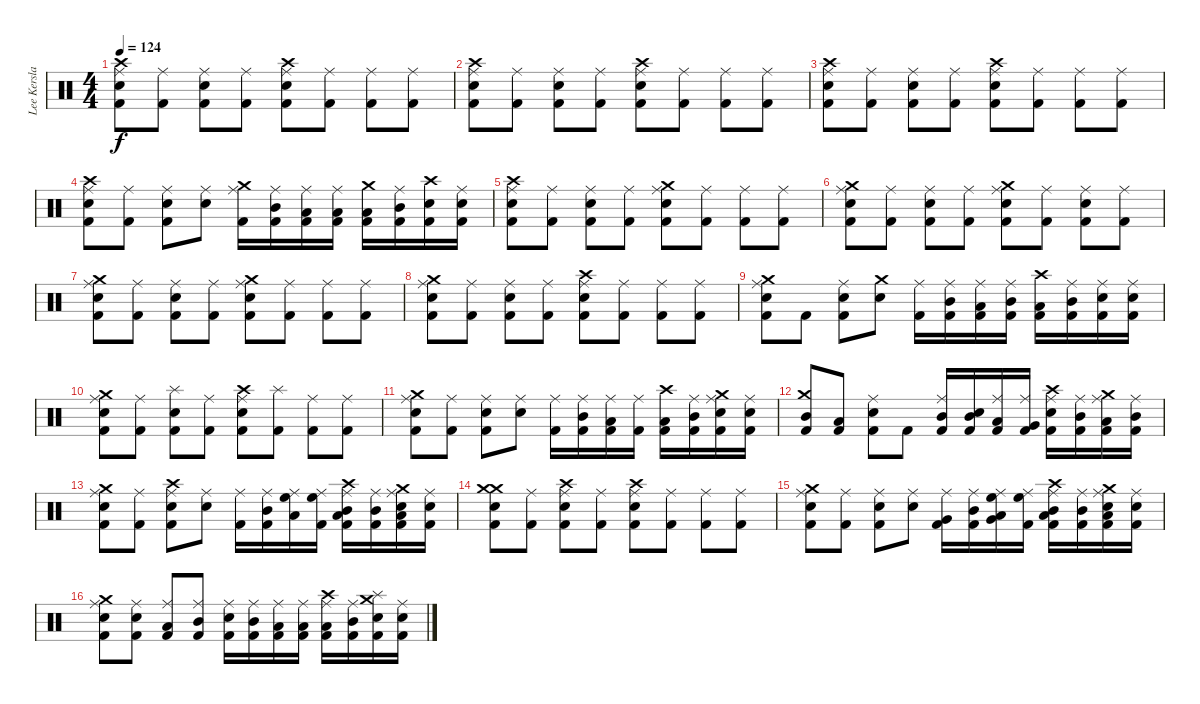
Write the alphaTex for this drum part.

\track ("Lee Kerslake" "Lee Kersla") {instrument percussion}
\staff {score}
\articulation defaults
\ts (4 4)
\tempo 124
\clef neutral
\ks c
("Kick (hit) 2" "Electric Snare (hit)" "Crash high (hit)" "Ride (middle)").8{dy f} ("Kick (hit) 2" "Ride (middle)").8 ("Kick (hit) 2" "Electric Snare (hit)" "Ride (middle)").8 ("Kick (hit) 2" "Ride (middle)").8 ("Kick (hit) 2" "Electric Snare (hit)" "Crash high (hit)" "Ride (middle)").8 ("Kick (hit) 2" "Ride (middle)").8 ("Kick (hit) 2" "Ride (middle)").8 ("Kick (hit) 2" "Ride (middle)").8 |
("Kick (hit) 2" "Electric Snare (hit)" "Crash high (hit)" "Ride (middle)").8 ("Kick (hit) 2" "Ride (middle)").8 ("Kick (hit) 2" "Electric Snare (hit)" "Ride (middle)").8 ("Kick (hit) 2" "Ride (middle)").8 ("Kick (hit) 2" "Electric Snare (hit)" "Crash high (hit)" "Ride (middle)").8 ("Kick (hit) 2" "Ride (middle)").8 ("Kick (hit) 2" "Ride (middle)").8 ("Kick (hit) 2" "Ride (middle)").8 |
("Kick (hit) 2" "Electric Snare (hit)" "Crash high (hit)" "Ride (middle)").8 ("Kick (hit) 2" "Ride (middle)").8 ("Kick (hit) 2" "Electric Snare (hit)" "Ride (middle)").8 ("Kick (hit) 2" "Ride (middle)").8 ("Kick (hit) 2" "Electric Snare (hit)" "Crash high (hit)" "Ride (middle)").8 ("Kick (hit) 2" "Ride (middle)").8 ("Kick (hit) 2" "Ride (middle)").8 ("Kick (hit) 2" "Ride (middle)").8 |
("Kick (hit) 2" "Electric Snare (hit)" "Crash high (hit)" "Ride (middle)").8 ("Kick (hit) 2" "Ride (middle)").8 ("Kick (hit) 2" "Electric Snare (hit)" "Ride (middle)").8 ("Electric Snare (hit)" "Ride (middle)").8 ("Kick (hit) 2" "Crash medium (hit)" "Ride (middle)").16 ("Kick (hit) 2" "Mid Tom (hit)" "Ride (middle)").16 ("Low Tom (hit)" "Kick (hit) 2" "Ride (middle)").16 ("Kick (hit) 2" "Low Floor Tom (hit)" "Ride (middle)").16 ("Kick (hit) 2" "Low Tom (hit)" "Crash medium (hit)").16 ("Kick (hit) 2" "Mid Tom (hit)" "Ride (middle)").16 ("Kick (hit) 2" "Electric Snare (hit)" "Crash high (hit)").16 ("Kick (hit) 2" "Electric Snare (hit)" "Ride (middle)").16 |
("Kick (hit) 2" "Electric Snare (hit)" "Crash high (hit)" "Ride (middle)").8 ("Kick (hit) 2" "Ride (middle)").8 ("Kick (hit) 2" "Electric Snare (hit)" "Ride (middle)").8 ("Kick (hit) 2" "Ride (middle)").8 ("Kick (hit) 2" "Electric Snare (hit)" "Crash medium (hit)" "Ride (middle)").8 ("Kick (hit) 2" "Ride (middle)").8 ("Kick (hit) 2" "Ride (middle)").8 ("Kick (hit) 2" "Ride (middle)").8 |
("Kick (hit) 2" "Electric Snare (hit)" "Crash medium (hit)" "Ride (middle)").8 ("Kick (hit) 2" "Ride (middle)").8 ("Kick (hit) 2" "Electric Snare (hit)" "Ride (middle)").8 ("Kick (hit) 2" "Ride (middle)").8 ("Kick (hit) 2" "Electric Snare (hit)" "Crash medium (hit)" "Ride (middle)").8 ("Kick (hit) 2" "Ride (middle)").8 ("Kick (hit) 2" "Electric Snare (hit)" "Ride (middle)").8 ("Kick (hit) 2" "Ride (middle)").8 |
("Kick (hit) 2" "Electric Snare (hit)" "Crash medium (hit)" "Ride (middle)").8 ("Kick (hit) 2" "Ride (middle)").8 ("Kick (hit) 2" "Electric Snare (hit)" "Ride (middle)").8 ("Kick (hit) 2" "Ride (middle)").8 ("Kick (hit) 2" "Electric Snare (hit)" "Crash medium (hit)" "Ride (middle)").8 ("Kick (hit) 2" "Ride (middle)").8 ("Kick (hit) 2" "Ride (middle)").8 ("Kick (hit) 2" "Ride (middle)").8 |
("Kick (hit) 2" "Electric Snare (hit)" "Crash medium (hit)" "Ride (middle)").8 ("Kick (hit) 2" "Ride (middle)").8 ("Kick (hit) 2" "Electric Snare (hit)" "Ride (middle)").8 ("Kick (hit) 2" "Ride (middle)").8 ("Kick (hit) 2" "Electric Snare (hit)" "Crash high (hit)" "Ride (middle)").8 ("Kick (hit) 2" "Ride (middle)").8 ("Kick (hit) 2" "Ride (middle)").8 ("Kick (hit) 2" "Ride (middle)").8 |
("Kick (hit) 2" "Electric Snare (hit)" "Crash medium (hit)" "Ride (middle)").8 "Kick (hit) 2".8 ("Kick (hit) 2" "Electric Snare (hit)" "Ride (middle)").8 ("Electric Snare (hit)" "Crash medium (hit)").8 ("Kick (hit) 2" "Ride (middle)").16 ("Kick (hit) 2" "Mid Tom (hit)" "Ride (middle)").16 ("Low Tom (hit)" "Kick (hit) 2" "Ride (middle)").16 ("Kick (hit) 2" "Mid Tom (hit)" "Ride (middle)").16 ("Kick (hit) 2" "Low Tom (hit)" "Crash high (hit)").16 ("Kick (hit) 2" "Mid Tom (hit)" "Ride (middle)").16 ("Kick (hit) 2" "Electric Snare (hit)" "Ride (middle)").16 ("Kick (hit) 2" "Electric Snare (hit)" "Ride (middle)").16 |
("Kick (hit) 2" "Electric Snare (hit)" "Crash medium (hit)" "Ride (middle)").8 ("Kick (hit) 2" "Ride (middle)").8 ("Kick (hit) 2" "Electric Snare (hit)" "Splash (hit)").8 ("Kick (hit) 2" "Ride (middle)").8 ("Kick (hit) 2" "Electric Snare (hit)" "Crash high (hit)" "Ride (middle)").8 ("Kick (hit) 2" "Splash (hit)").8 ("Kick (hit) 2" "Ride (middle)").8 ("Kick (hit) 2" "Ride (middle)").8 |
("Kick (hit) 2" "Electric Snare (hit)" "Crash medium (hit)" "Ride (middle)").8 ("Kick (hit) 2" "Ride (middle)").8 ("Kick (hit) 2" "Electric Snare (hit)" "Ride (middle)").8 ("Electric Snare (hit)" "Ride (middle)").8 ("Kick (hit) 2" "Ride (middle)").16 ("Kick (hit) 2" "Mid Tom (hit)" "Ride (middle)").16 ("Low Tom (hit)" "Kick (hit) 2" "Ride (middle)").16 ("Kick (hit) 2" "Ride (middle)").16 ("Kick (hit) 2" "Low Tom (hit)" "Crash high (hit)").16 ("Kick (hit) 2" "Mid Tom (hit)" "Ride (middle)").16 ("Kick (hit) 2" "Electric Snare (hit)" "Crash medium (hit)" "Ride (middle)").16 ("Kick (hit) 2" "Electric Snare (hit)" "Ride (middle)").16 |
("Kick (hit) 2" "Mid Tom (hit)" "Crash medium (hit)").8 ("Kick (hit) 2" "Low Tom (hit)").8 ("Kick (hit) 2" "Electric Snare (hit)" "Ride (middle)").8 "Kick (hit) 2".8 ("Kick (hit) 2" "Mid Tom (hit)" "Ride (middle)").16 ("Kick (hit) 2" "Electric Snare (hit)" "Mid Tom (hit)").16 ("Kick (hit) 2" "Low Tom (hit)" "Ride (middle)").16 ("Kick (hit) 2" "Very Low Tom (hit)" "Ride (middle)").16 ("Kick (hit) 2" "Electric Snare (hit)" "Crash high (hit)" "Ride (middle)").16 ("Kick (hit) 2" "Mid Tom (hit)" "Ride (middle)").16 ("Kick (hit) 2" "Low Tom (hit)" "Crash medium (hit)" "Ride (middle)").16 ("Kick (hit) 2" "Mid Tom (hit)" "Ride (middle)").16 |
("Kick (hit) 2" "Electric Snare (hit)" "Crash medium (hit)" "Ride (middle)").8 ("Kick (hit) 2" "Ride (middle)").8 ("Kick (hit) 2" "Electric Snare (hit)" "Crash high (hit)" "Ride (middle)").8 ("Electric Snare (hit)" "Ride (middle)").8 ("Kick (hit) 2" "Ride (middle)").16 ("Kick (hit) 2" "Mid Tom (hit)" "Ride (middle)").16 ("Low Tom (hit)" "High Floor Tom (hit)" "Ride (middle)").16 ("Kick (hit) 2" "High Floor Tom (hit)" "Ride (middle)").16 ("Kick (hit) 2" "Low Tom (hit)" "Mid Tom (hit)" "Crash high (hit)" "Ride (middle)").16 ("Kick (hit) 2" "Mid Tom (hit)" "Ride (middle)").16 ("Kick (hit) 2" "Low Tom (hit)" "Electric Snare (hit)" "Crash medium (hit)" "Ride (middle)").16 ("Kick (hit) 2" "Electric Snare (hit)" "Ride (middle)").16 |
("Kick (hit) 2" "Electric Snare (hit)" "Crash medium (hit)" "Crash medium (hit)").8 ("Kick (hit) 2" "Ride (middle)").8 ("Kick (hit) 2" "Electric Snare (hit)" "Crash high (hit)" "Ride (middle)").8 ("Kick (hit) 2" "Ride (middle)").8 ("Kick (hit) 2" "Electric Snare (hit)" "Crash high (hit)" "Ride (middle)").8 ("Kick (hit) 2" "Ride (middle)").8 ("Kick (hit) 2" "Ride (middle)").8 ("Kick (hit) 2" "Ride (middle)").8 |
("Kick (hit) 2" "Electric Snare (hit)" "Crash medium (hit)" "Ride (middle)").8 ("Kick (hit) 2" "Ride (middle)").8 ("Kick (hit) 2" "Electric Snare (hit)" "Ride (middle)").8 ("Electric Snare (hit)" "Ride (middle)").8 ("Very Low Tom (hit)" "Kick (hit) 2" "Ride (middle)").16 ("Kick (hit) 2" "Mid Tom (hit)" "Ride (middle)").16 ("Low Tom (hit)" "High Floor Tom (hit)" "Very Low Tom (hit)" "Ride (middle)").16 ("Kick (hit) 2" "High Floor Tom (hit)" "Ride (middle)").16 ("Kick (hit) 2" "Low Tom (hit)" "Mid Tom (hit)" "Crash high (hit)" "Ride (middle)").16 ("Kick (hit) 2" "Mid Tom (hit)" "Ride (middle)").16 ("Kick (hit) 2" "Low Tom (hit)" "Electric Snare (hit)" "Crash medium (hit)" "Ride (middle)").16 ("Kick (hit) 2" "Electric Snare (hit)" "Ride (middle)").16 |
("Kick (hit) 2" "Electric Snare (hit)" "Crash medium (hit)" "Ride (middle)").8 ("Kick (hit) 2" "Electric Snare (hit)" "Ride (middle)").8 ("Kick (hit) 2" "Low Tom (hit)" "Ride (middle)").8 ("Kick (hit) 2" "Mid Tom (hit)" "Ride (middle)").8 ("Kick (hit) 2" "Electric Snare (hit)" "Ride (middle)").16 ("Kick (hit) 2" "Mid Tom (hit)" "Ride (middle)").16 ("Kick (hit) 2" "Low Tom (hit)" "Ride (middle)").16 ("Kick (hit) 2" "Low Floor Tom (hit)" "Ride (middle)").16 ("Kick (hit) 2" "Low Tom (hit)" "Crash high (hit)" "Ride (middle)").16 ("Kick (hit) 2" "Mid Tom (hit)" "Ride (middle)").16 ("Kick (hit) 2" "Electric Snare (hit)" "Crash medium (hit)" "Splash (hit)").16 ("Kick (hit) 2" "Electric Snare (hit)" "Ride (middle)").16
